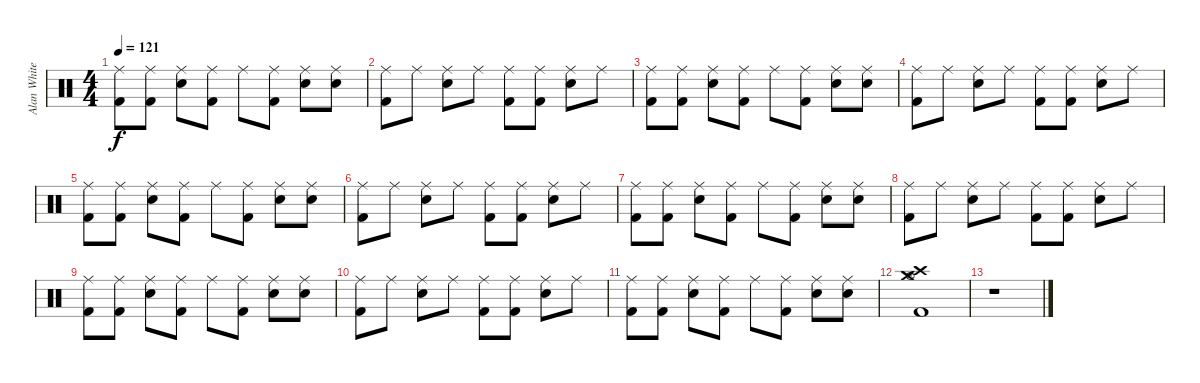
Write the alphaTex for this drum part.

\track ("Alan White - Drums" "Alan White") {instrument percussion}
\staff {score}
\articulation defaults
\ts (4 4)
\tempo 121
\clef neutral
\ks c
("Ride (middle)" "Kick (hit) 2").8{dy f} ("Ride (middle)" "Kick (hit) 2").8 ("Ride (middle)" "Electric Snare (hit)").8 ("Ride (middle)" "Kick (hit) 2").8 "Ride (middle)".8 ("Ride (middle)" "Kick (hit) 2").8 ("Ride (middle)" "Electric Snare (hit)").8 ("Ride (middle)" "Electric Snare (hit)").8 |
("Ride (middle)" "Kick (hit) 2").8 "Ride (middle)".8 ("Ride (middle)" "Electric Snare (hit)").8 "Ride (middle)".8 ("Ride (middle)" "Kick (hit) 2").8 ("Ride (middle)" "Kick (hit) 2").8 ("Ride (middle)" "Electric Snare (hit)").8 "Ride (middle)".8 |
("Ride (middle)" "Kick (hit) 2").8 ("Ride (middle)" "Kick (hit) 2").8 ("Ride (middle)" "Electric Snare (hit)").8 ("Ride (middle)" "Kick (hit) 2").8 "Ride (middle)".8 ("Ride (middle)" "Kick (hit) 2").8 ("Ride (middle)" "Electric Snare (hit)").8 ("Ride (middle)" "Electric Snare (hit)").8 |
("Ride (middle)" "Kick (hit) 2").8 "Ride (middle)".8 ("Ride (middle)" "Electric Snare (hit)").8 "Ride (middle)".8 ("Ride (middle)" "Kick (hit) 2").8 ("Ride (middle)" "Kick (hit) 2").8 ("Ride (middle)" "Electric Snare (hit)").8 "Ride (middle)".8 |
("Ride (middle)" "Kick (hit) 2").8 ("Ride (middle)" "Kick (hit) 2").8 ("Ride (middle)" "Electric Snare (hit)").8 ("Ride (middle)" "Kick (hit) 2").8 "Ride (middle)".8 ("Ride (middle)" "Kick (hit) 2").8 ("Ride (middle)" "Electric Snare (hit)").8 ("Ride (middle)" "Electric Snare (hit)").8 |
("Ride (middle)" "Kick (hit) 2").8 "Ride (middle)".8 ("Ride (middle)" "Electric Snare (hit)").8 "Ride (middle)".8 ("Ride (middle)" "Kick (hit) 2").8 ("Ride (middle)" "Kick (hit) 2").8 ("Ride (middle)" "Electric Snare (hit)").8 "Ride (middle)".8 |
("Ride (middle)" "Kick (hit) 2").8 ("Ride (middle)" "Kick (hit) 2").8 ("Ride (middle)" "Electric Snare (hit)").8 ("Ride (middle)" "Kick (hit) 2").8 "Ride (middle)".8 ("Ride (middle)" "Kick (hit) 2").8 ("Ride (middle)" "Electric Snare (hit)").8 ("Ride (middle)" "Electric Snare (hit)").8 |
("Ride (middle)" "Kick (hit) 2").8 "Ride (middle)".8 ("Ride (middle)" "Electric Snare (hit)").8 "Ride (middle)".8 ("Ride (middle)" "Kick (hit) 2").8 ("Ride (middle)" "Kick (hit) 2").8 ("Ride (middle)" "Electric Snare (hit)").8 "Ride (middle)".8 |
("Ride (middle)" "Kick (hit) 2").8 ("Ride (middle)" "Kick (hit) 2").8 ("Ride (middle)" "Electric Snare (hit)").8 ("Ride (middle)" "Kick (hit) 2").8 "Ride (middle)".8 ("Ride (middle)" "Kick (hit) 2").8 ("Ride (middle)" "Electric Snare (hit)").8 ("Ride (middle)" "Electric Snare (hit)").8 |
("Ride (middle)" "Kick (hit) 2").8 "Ride (middle)".8 ("Ride (middle)" "Electric Snare (hit)").8 "Ride (middle)".8 ("Ride (middle)" "Kick (hit) 2").8 ("Ride (middle)" "Kick (hit) 2").8 ("Ride (middle)" "Electric Snare (hit)").8 "Ride (middle)".8 |
("Ride (middle)" "Kick (hit) 2").8 ("Ride (middle)" "Kick (hit) 2").8 ("Ride (middle)" "Electric Snare (hit)").8 ("Ride (middle)" "Kick (hit) 2").8 "Ride (middle)".8 ("Ride (middle)" "Kick (hit) 2").8 ("Ride (middle)" "Electric Snare (hit)").8 ("Ride (middle)" "Electric Snare (hit)").8 |
("Crash medium (hit)" "Crash high (hit)" "Hi-Hat (open)" "Kick (hit) 2").1 |
r.1
